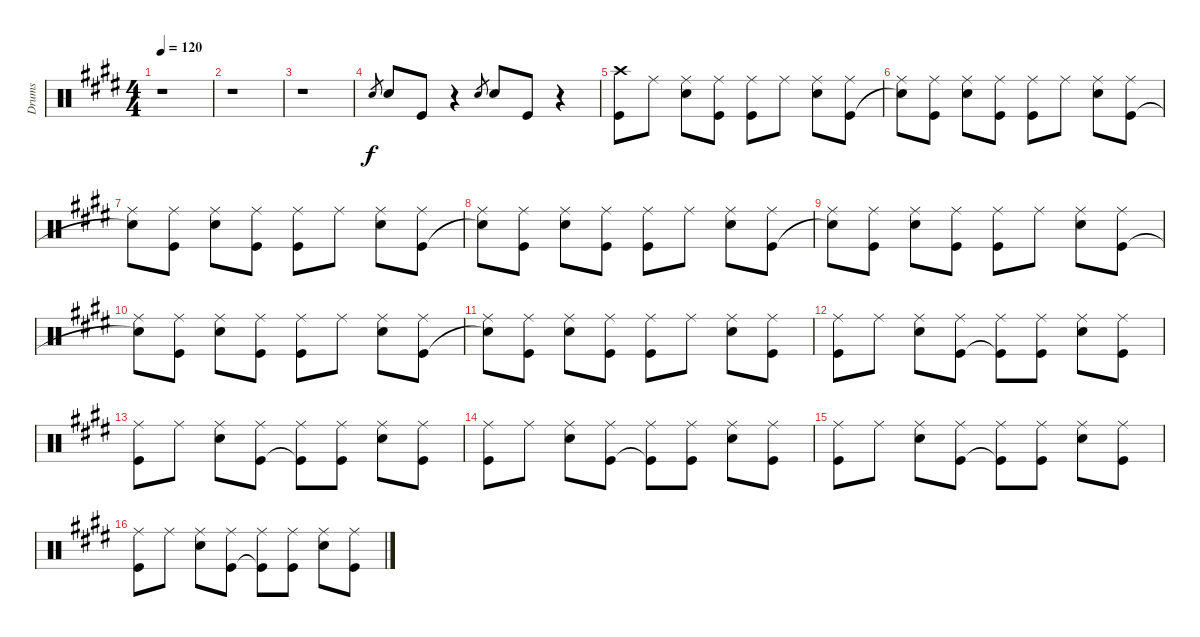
\track ("Drums" "Drums") {instrument percussion}
\staff {score}
\articulation defaults
\ts (4 4)
\tempo 120
\clef neutral
\ks e
r.1{dy f} |
r.1 |
r.1 |
"Snare (hit) 2".8{gr} "Snare (hit) 2".8 "Kick (hit)".8 r.4 "Snare (hit) 2".8{gr} "Snare (hit) 2".8 "Kick (hit)".8 r.4 |
("Crash high (hit)" "Kick (hit)").8 "Ride (middle)".8 ("Ride (middle)" "Snare (hit) 2").8 ("Ride (middle)" "Kick (hit)").8 ("Ride (middle)" "Kick (hit)").8 "Ride (middle)".8 ("Ride (middle)" "Snare (hit) 2").8 ("Ride (middle)" "Kick (hit)").8 |
("Ride (middle)" "Snare (hit)"{t}).8 ("Ride (middle)" "Kick (hit)").8 ("Ride (middle)" "Snare (hit) 2").8 ("Ride (middle)" "Kick (hit)").8 ("Ride (middle)" "Kick (hit)").8 "Ride (middle)".8 ("Ride (middle)" "Snare (hit) 2").8 ("Ride (middle)" "Kick (hit)").8 |
("Ride (middle)" "Snare (hit)"{t}).8 ("Ride (middle)" "Kick (hit)").8 ("Ride (middle)" "Snare (hit) 2").8 ("Ride (middle)" "Kick (hit)").8 ("Ride (middle)" "Kick (hit)").8 "Ride (middle)".8 ("Ride (middle)" "Snare (hit) 2").8 ("Ride (middle)" "Kick (hit)").8 |
("Ride (middle)" "Snare (hit)"{t}).8 ("Ride (middle)" "Kick (hit)").8 ("Ride (middle)" "Snare (hit) 2").8 ("Ride (middle)" "Kick (hit)").8 ("Ride (middle)" "Kick (hit)").8 "Ride (middle)".8 ("Ride (middle)" "Snare (hit) 2").8 ("Ride (middle)" "Kick (hit)").8 |
("Ride (middle)" "Snare (hit)"{t}).8 ("Ride (middle)" "Kick (hit)").8 ("Ride (middle)" "Snare (hit) 2").8 ("Ride (middle)" "Kick (hit)").8 ("Ride (middle)" "Kick (hit)").8 "Ride (middle)".8 ("Ride (middle)" "Snare (hit) 2").8 ("Ride (middle)" "Kick (hit)").8 |
("Ride (middle)" "Snare (hit)"{t}).8 ("Ride (middle)" "Kick (hit)").8 ("Ride (middle)" "Snare (hit) 2").8 ("Ride (middle)" "Kick (hit)").8 ("Ride (middle)" "Kick (hit)").8 "Ride (middle)".8 ("Ride (middle)" "Snare (hit) 2").8 ("Ride (middle)" "Kick (hit)").8 |
("Ride (middle)" "Snare (hit)"{t}).8 ("Ride (middle)" "Kick (hit)").8 ("Ride (middle)" "Snare (hit) 2").8 ("Ride (middle)" "Kick (hit)").8 ("Ride (middle)" "Kick (hit)").8 "Ride (middle)".8 ("Ride (middle)" "Snare (hit) 2").8 ("Ride (middle)" "Kick (hit)").8 |
("Ride (middle)" "Kick (hit)").8 "Ride (middle)".8 ("Ride (middle)" "Snare (hit) 2").8 ("Ride (middle)" "Kick (hit)").8 ("Ride (middle)" "Kick (hit)"{t}).8 ("Ride (middle)" "Kick (hit)").8 ("Ride (middle)" "Snare (hit) 2").8 ("Ride (middle)" "Kick (hit)").8 |
("Ride (middle)" "Kick (hit)").8 "Ride (middle)".8 ("Ride (middle)" "Snare (hit) 2").8 ("Ride (middle)" "Kick (hit)").8 ("Ride (middle)" "Kick (hit)"{t}).8 ("Ride (middle)" "Kick (hit)").8 ("Ride (middle)" "Snare (hit) 2").8 ("Ride (middle)" "Kick (hit)").8 |
("Ride (middle)" "Kick (hit)").8 "Ride (middle)".8 ("Ride (middle)" "Snare (hit) 2").8 ("Ride (middle)" "Kick (hit)").8 ("Ride (middle)" "Kick (hit)"{t}).8 ("Ride (middle)" "Kick (hit)").8 ("Ride (middle)" "Snare (hit) 2").8 ("Ride (middle)" "Kick (hit)").8 |
("Ride (middle)" "Kick (hit)").8 "Ride (middle)".8 ("Ride (middle)" "Snare (hit) 2").8 ("Ride (middle)" "Kick (hit)").8 ("Ride (middle)" "Kick (hit)"{t}).8 ("Ride (middle)" "Kick (hit)").8 ("Ride (middle)" "Snare (hit) 2").8 ("Ride (middle)" "Kick (hit)").8 |
("Ride (middle)" "Kick (hit)").8 "Ride (middle)".8 ("Ride (middle)" "Snare (hit) 2").8 ("Ride (middle)" "Kick (hit)").8 ("Ride (middle)" "Kick (hit)"{t}).8 ("Ride (middle)" "Kick (hit)").8 ("Ride (middle)" "Snare (hit) 2").8 ("Ride (middle)" "Kick (hit)").8
